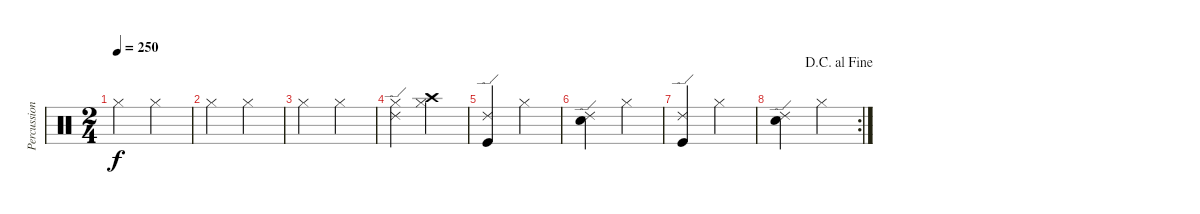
\track ("Percussion" "Percussion") {instrument percussion}
\staff {score}
\articulation defaults
\ts (2 4)
\tempo 250
\clef neutral
\ks c "Hi-Hat (closed)".4{dy f} "Hi-Hat (closed)".4
|
"Hi-Hat (closed)".4 "Hi-Hat (closed)".4 |
"Hi-Hat (closed)".4 "Hi-Hat (closed)".4 |
("Ride (edge) 2" "Hi-Hat (closed)").4 ("Crash high (hit)" "Hi-Hat (closed)").4 |
("Ride (edge) 2" "Kick (hit)").4 "Hi-Hat (closed)".4 |
("Ride (edge) 2" "Snare (hit) 2").4 "Hi-Hat (closed)".4 |
("Ride (edge) 2" "Kick (hit)").4 "Hi-Hat (closed)".4 |
\rc 2
\jump dacapoalfine
("Ride (edge) 2" "Snare (hit) 2").4 "Hi-Hat (closed)".4
